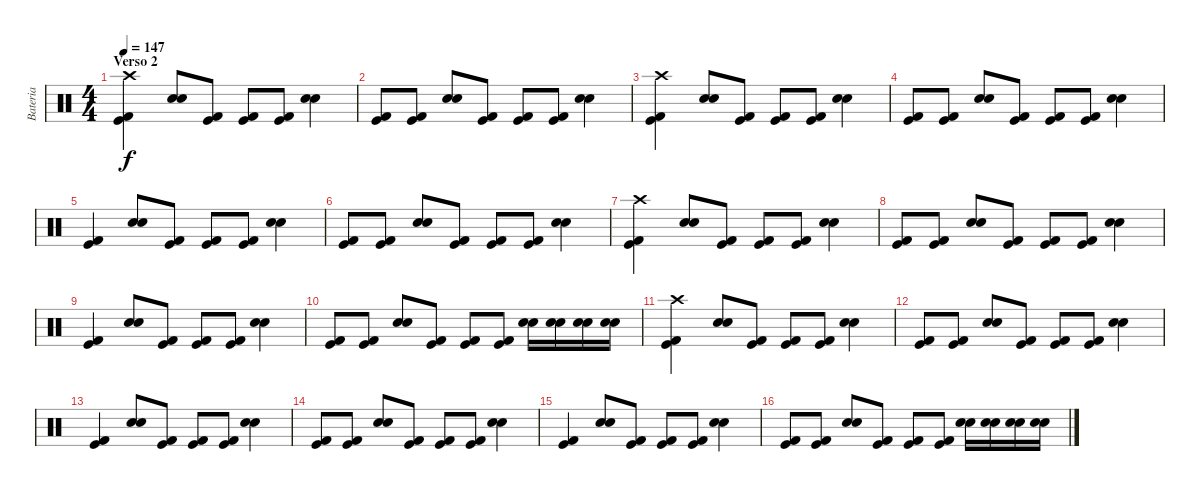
\track ("Bateria" "Bateria") {instrument percussion}
\staff {score}
\articulation defaults
\ts (4 4)
\section ("" "Verso 2")
\tempo 147
\clef neutral
\ks c
("Crash high (hit)" "Kick (hit)" "Kick (hit) 2").4{dy f} ("Snare (hit) 2" "Electric Snare (hit)").8 ("Kick (hit)" "Kick (hit) 2").8 ("Kick (hit)" "Kick (hit) 2").8 ("Kick (hit)" "Kick (hit) 2").8 ("Snare (hit) 2" "Electric Snare (hit)").4 |
("Kick (hit)" "Kick (hit) 2").8 ("Kick (hit)" "Kick (hit) 2").8 ("Snare (hit) 2" "Electric Snare (hit)").8 ("Kick (hit)" "Kick (hit) 2").8 ("Kick (hit)" "Kick (hit) 2").8 ("Kick (hit)" "Kick (hit) 2").8 ("Snare (hit) 2" "Electric Snare (hit)").4 |
("Crash high (hit)" "Kick (hit)" "Kick (hit) 2").4 ("Snare (hit) 2" "Electric Snare (hit)").8 ("Kick (hit)" "Kick (hit) 2").8 ("Kick (hit)" "Kick (hit) 2").8 ("Kick (hit)" "Kick (hit) 2").8 ("Snare (hit) 2" "Electric Snare (hit)").4 |
("Kick (hit)" "Kick (hit) 2").8 ("Kick (hit)" "Kick (hit) 2").8 ("Snare (hit) 2" "Electric Snare (hit)").8 ("Kick (hit)" "Kick (hit) 2").8 ("Kick (hit)" "Kick (hit) 2").8 ("Kick (hit)" "Kick (hit) 2").8 ("Snare (hit) 2" "Electric Snare (hit)").4 |
("Kick (hit)" "Kick (hit) 2").4 ("Snare (hit) 2" "Electric Snare (hit)").8 ("Kick (hit)" "Kick (hit) 2").8 ("Kick (hit)" "Kick (hit) 2").8 ("Kick (hit)" "Kick (hit) 2").8 ("Snare (hit) 2" "Electric Snare (hit)").4 |
("Kick (hit)" "Kick (hit) 2").8 ("Kick (hit)" "Kick (hit) 2").8 ("Snare (hit) 2" "Electric Snare (hit)").8 ("Kick (hit)" "Kick (hit) 2").8 ("Kick (hit)" "Kick (hit) 2").8 ("Kick (hit)" "Kick (hit) 2").8 ("Snare (hit) 2" "Electric Snare (hit)").4 |
("Crash high (hit)" "Kick (hit)" "Kick (hit) 2").4 ("Snare (hit) 2" "Electric Snare (hit)").8 ("Kick (hit)" "Kick (hit) 2").8 ("Kick (hit)" "Kick (hit) 2").8 ("Kick (hit)" "Kick (hit) 2").8 ("Snare (hit) 2" "Electric Snare (hit)").4 |
("Kick (hit)" "Kick (hit) 2").8 ("Kick (hit)" "Kick (hit) 2").8 ("Snare (hit) 2" "Electric Snare (hit)").8 ("Kick (hit)" "Kick (hit) 2").8 ("Kick (hit)" "Kick (hit) 2").8 ("Kick (hit)" "Kick (hit) 2").8 ("Snare (hit) 2" "Electric Snare (hit)").4 |
("Kick (hit)" "Kick (hit) 2").4 ("Snare (hit) 2" "Electric Snare (hit)").8 ("Kick (hit)" "Kick (hit) 2").8 ("Kick (hit)" "Kick (hit) 2").8 ("Kick (hit)" "Kick (hit) 2").8 ("Snare (hit) 2" "Electric Snare (hit)").4 |
("Kick (hit)" "Kick (hit) 2").8 ("Kick (hit)" "Kick (hit) 2").8 ("Snare (hit) 2" "Electric Snare (hit)").8 ("Kick (hit)" "Kick (hit) 2").8 ("Kick (hit)" "Kick (hit) 2").8 ("Kick (hit)" "Kick (hit) 2").8 ("Snare (hit) 2" "Electric Snare (hit)").16 ("Snare (hit) 2" "Electric Snare (hit)").16 ("Snare (hit) 2" "Electric Snare (hit)").16 ("Snare (hit) 2" "Electric Snare (hit)").16 |
("Crash high (hit)" "Kick (hit)" "Kick (hit) 2").4 ("Snare (hit) 2" "Electric Snare (hit)").8 ("Kick (hit)" "Kick (hit) 2").8 ("Kick (hit)" "Kick (hit) 2").8 ("Kick (hit)" "Kick (hit) 2").8 ("Snare (hit) 2" "Electric Snare (hit)").4 |
("Kick (hit)" "Kick (hit) 2").8 ("Kick (hit)" "Kick (hit) 2").8 ("Snare (hit) 2" "Electric Snare (hit)").8 ("Kick (hit)" "Kick (hit) 2").8 ("Kick (hit)" "Kick (hit) 2").8 ("Kick (hit)" "Kick (hit) 2").8 ("Snare (hit) 2" "Electric Snare (hit)").4 |
("Kick (hit)" "Kick (hit) 2").4 ("Snare (hit) 2" "Electric Snare (hit)").8 ("Kick (hit)" "Kick (hit) 2").8 ("Kick (hit)" "Kick (hit) 2").8 ("Kick (hit)" "Kick (hit) 2").8 ("Snare (hit) 2" "Electric Snare (hit)").4 |
("Kick (hit)" "Kick (hit) 2").8 ("Kick (hit)" "Kick (hit) 2").8 ("Snare (hit) 2" "Electric Snare (hit)").8 ("Kick (hit)" "Kick (hit) 2").8 ("Kick (hit)" "Kick (hit) 2").8 ("Kick (hit)" "Kick (hit) 2").8 ("Snare (hit) 2" "Electric Snare (hit)").4 |
("Kick (hit)" "Kick (hit) 2").4 ("Snare (hit) 2" "Electric Snare (hit)").8 ("Kick (hit)" "Kick (hit) 2").8 ("Kick (hit)" "Kick (hit) 2").8 ("Kick (hit)" "Kick (hit) 2").8 ("Snare (hit) 2" "Electric Snare (hit)").4 |
("Kick (hit)" "Kick (hit) 2").8 ("Kick (hit)" "Kick (hit) 2").8 ("Snare (hit) 2" "Electric Snare (hit)").8 ("Kick (hit)" "Kick (hit) 2").8 ("Kick (hit)" "Kick (hit) 2").8 ("Kick (hit)" "Kick (hit) 2").8 ("Snare (hit) 2" "Electric Snare (hit)").16 ("Snare (hit) 2" "Electric Snare (hit)").16 ("Snare (hit) 2" "Electric Snare (hit)").16 ("Snare (hit) 2" "Electric Snare (hit)").16
